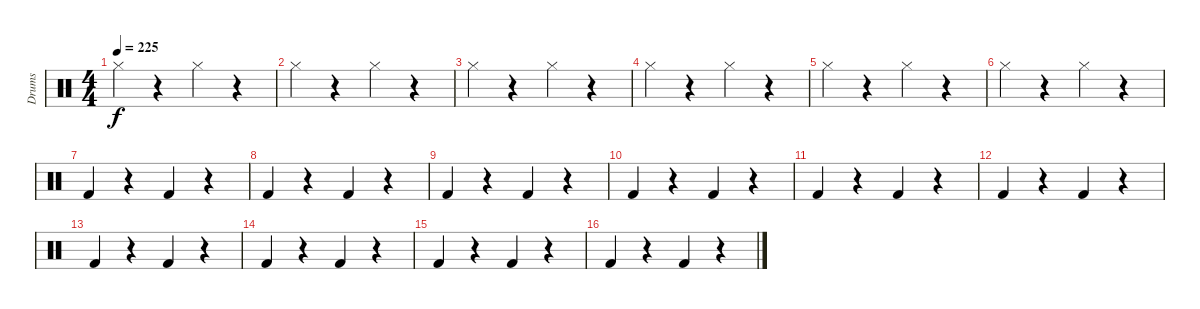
\track ("Drums" "Drums") {instrument percussion}
\staff {score}
\articulation defaults
\ts (4 4)
\tempo 225
\clef neutral
\ks c "Hi-Hat (closed)".4{dy f}
r.4 "Hi-Hat (closed)".4 r.4 |
"Hi-Hat (closed)".4 r.4 "Hi-Hat (closed)".4 r.4 |
"Hi-Hat (closed)".4 r.4 "Hi-Hat (closed)".4 r.4 |
"Hi-Hat (closed)".4 r.4 "Hi-Hat (closed)".4 r.4 |
"Hi-Hat (closed)".4 r.4 "Hi-Hat (closed)".4 r.4 |
"Hi-Hat (closed)".4 r.4 "Hi-Hat (closed)".4 r.4 |
"Kick (hit) 2".4 r.4 "Kick (hit) 2".4 r.4 |
"Kick (hit) 2".4 r.4 "Kick (hit) 2".4 r.4 |
"Kick (hit) 2".4 r.4 "Kick (hit) 2".4 r.4 |
"Kick (hit) 2".4 r.4 "Kick (hit) 2".4 r.4 |
"Kick (hit) 2".4 r.4 "Kick (hit) 2".4 r.4 |
"Kick (hit) 2".4 r.4 "Kick (hit) 2".4 r.4 |
"Kick (hit) 2".4 r.4 "Kick (hit) 2".4 r.4 |
"Kick (hit) 2".4 r.4 "Kick (hit) 2".4 r.4 |
"Kick (hit) 2".4 r.4 "Kick (hit) 2".4 r.4 |
"Kick (hit) 2".4 r.4 "Kick (hit) 2".4 r.4
